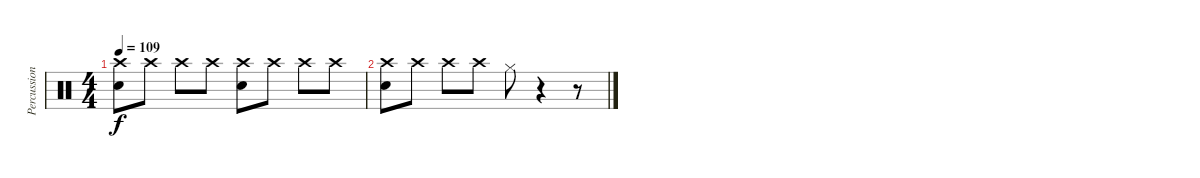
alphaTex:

\track ("Percussions" "Percussion") {instrument percussion}
\staff {score}
\articulation defaults
\ts (4 4)
\tempo 109
\clef neutral
\ks c
("Crash high (hit)" "Electric Snare (hit)").8{dy f} "Crash high (hit)".8 "Crash high (hit)".8 "Crash high (hit)".8 ("Crash high (hit)" "Electric Snare (hit)").8 "Crash high (hit)".8 "Crash high (hit)".8 "Crash high (hit)".8 |
("Crash high (hit)" "Electric Snare (hit)").8 "Crash high (hit)".8 "Crash high (hit)".8 "Crash high (hit)".8 "Hi-Hat (closed)".8 r.4 r.8
